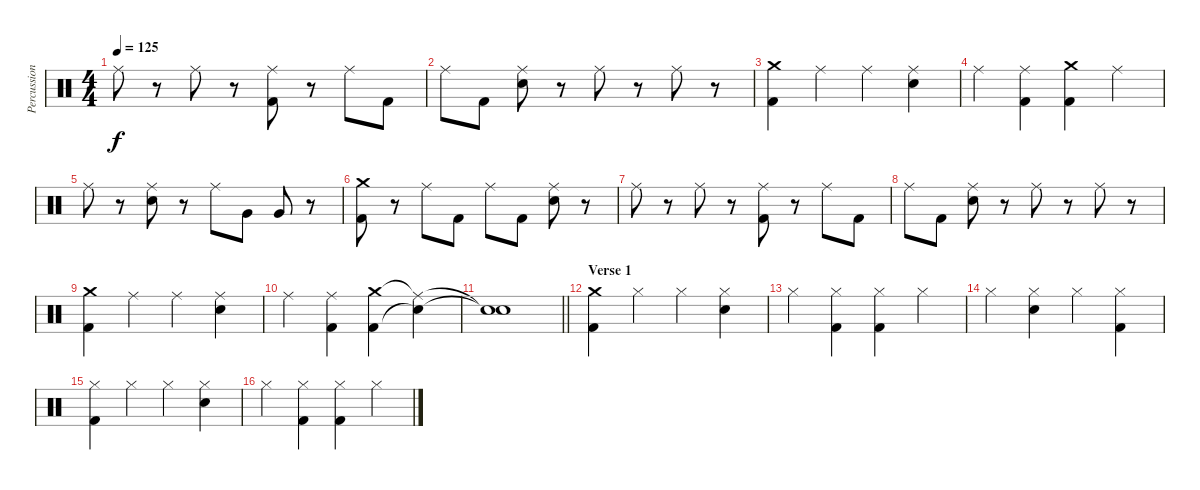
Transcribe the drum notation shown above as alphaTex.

\track ("Percussion" "Percussion") {instrument percussion}
\staff {score}
\articulation defaults
\ts (4 4)
\tempo 125
\clef neutral
\ks c "Ride (middle)".8{dy f}
r.8 "Ride (middle)".8 r.8 ("Ride (middle)" "Kick (hit) 2").8 r.8 "Ride (middle)".8 "Kick (hit) 2".8 |
"Ride (middle)".8 "Kick (hit) 2".8 ("Ride (middle)" "Electric Snare (hit)").8 r.8 "Ride (middle)".8 r.8 "Ride (middle)".8 r.8 |
("Crash medium (hit)" "Kick (hit) 2").4 "Ride (middle)".4 "Ride (middle)".4 ("Ride (middle)" "Electric Snare (hit)").4 |
"Ride (middle)".4 ("Ride (middle)" "Kick (hit) 2").4 ("Crash medium (hit)" "Kick (hit) 2").4 "Ride (middle)".4 |
"Ride (middle)".8 r.8 ("Ride (middle)" "Electric Snare (hit)").8 r.8 "Ride (middle)".8 "Very Low Tom (hit)".8 "Very Low Tom (hit)".8 r.8 |
("Crash medium (hit)" "Kick (hit) 2").8 r.8 "Ride (middle)".8 "Kick (hit) 2".8 "Ride (middle)".8 "Kick (hit) 2".8 ("Ride (middle)" "Electric Snare (hit)").8 r.8 |
"Ride (middle)".8 r.8 "Ride (middle)".8 r.8 ("Ride (middle)" "Kick (hit) 2").8 r.8 "Ride (middle)".8 "Kick (hit) 2".8 |
"Ride (middle)".8 "Kick (hit) 2".8 ("Ride (middle)" "Electric Snare (hit)").8 r.8 "Ride (middle)".8 r.8 "Ride (middle)".8 r.8 |
("Crash medium (hit)" "Kick (hit) 2").4 "Ride (middle)".4 "Ride (middle)".4 ("Ride (middle)" "Electric Snare (hit)").4 |
"Ride (middle)".4 ("Ride (middle)" "Kick (hit) 2").4 ("Crash medium (hit)" "Kick (hit) 2").4 ("Ride (middle)"{t} "Snare (hit)"{t}).4 |
\barLineRight lightlight
("Snare (hit)"{t} "Snare (hit)"{t}).1 |
\section ("" "Verse 1")
("Crash medium (hit)" "Kick (hit) 2").4 "Hi-Hat (closed)".4 "Hi-Hat (closed)".4 ("Hi-Hat (closed)" "Electric Snare (hit)").4 |
"Hi-Hat (closed)".4 ("Hi-Hat (closed)" "Kick (hit) 2").4 ("Hi-Hat (closed)" "Kick (hit) 2").4 "Hi-Hat (closed)".4 |
"Hi-Hat (closed)".4 ("Hi-Hat (closed)" "Electric Snare (hit)").4 "Hi-Hat (closed)".4 ("Hi-Hat (closed)" "Kick (hit) 2").4 |
("Hi-Hat (closed)" "Kick (hit) 2").4 "Hi-Hat (closed)".4 "Hi-Hat (closed)".4 ("Hi-Hat (closed)" "Electric Snare (hit)").4 |
"Hi-Hat (closed)".4 ("Hi-Hat (closed)" "Kick (hit) 2").4 ("Hi-Hat (closed)" "Kick (hit) 2").4 "Hi-Hat (closed)".4
